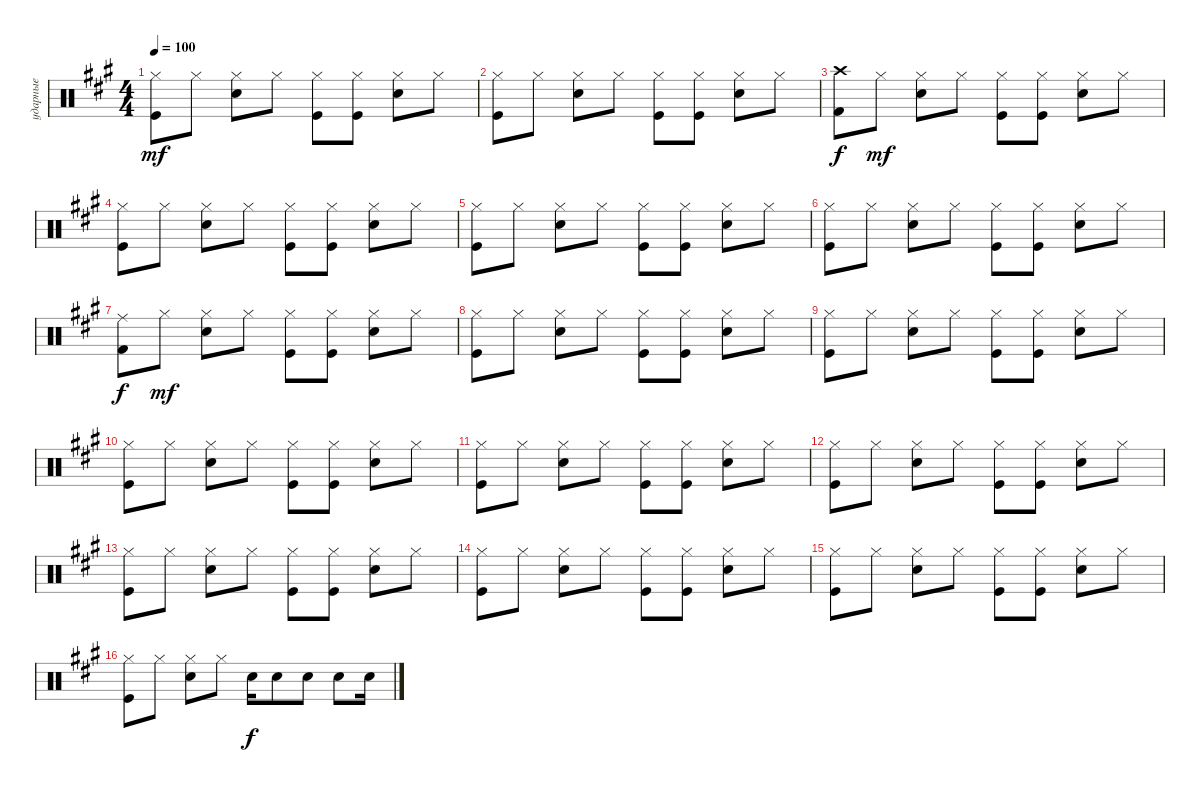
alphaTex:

\track ("ударные" "ударные") {instrument percussion}
\staff {score}
\articulation defaults
\ts (4 4)
\tempo 100
\clef neutral
\ks f#minor
("Kick (hit)" "Hi-Hat (closed)").8{dy mf} "Hi-Hat (closed)".8 ("Hi-Hat (closed)" "Electric Snare (hit)").8 "Hi-Hat (closed)".8 ("Hi-Hat (closed)" "Kick (hit)").8 ("Hi-Hat (closed)" "Kick (hit)").8 ("Hi-Hat (closed)" "Electric Snare (hit)").8 "Hi-Hat (closed)".8 |
("Kick (hit)" "Hi-Hat (closed)").8 "Hi-Hat (closed)".8 ("Hi-Hat (closed)" "Electric Snare (hit)").8 "Hi-Hat (closed)".8 ("Hi-Hat (closed)" "Kick (hit)").8 ("Hi-Hat (closed)" "Kick (hit)").8 ("Hi-Hat (closed)" "Electric Snare (hit)").8 "Hi-Hat (closed)".8 |
("Crash high (hit)" "Kick (hit) 2").8{dy f} "Hi-Hat (closed)".8{dy mf} ("Hi-Hat (closed)" "Electric Snare (hit)").8 "Hi-Hat (closed)".8 ("Hi-Hat (closed)" "Kick (hit)").8 ("Hi-Hat (closed)" "Kick (hit)").8 ("Hi-Hat (closed)" "Electric Snare (hit)").8 "Hi-Hat (closed)".8 |
("Kick (hit)" "Hi-Hat (closed)").8 "Hi-Hat (closed)".8 ("Hi-Hat (closed)" "Electric Snare (hit)").8 "Hi-Hat (closed)".8 ("Hi-Hat (closed)" "Kick (hit)").8 ("Hi-Hat (closed)" "Kick (hit)").8 ("Hi-Hat (closed)" "Electric Snare (hit)").8 "Hi-Hat (closed)".8 |
("Kick (hit)" "Hi-Hat (closed)").8 "Hi-Hat (closed)".8 ("Hi-Hat (closed)" "Electric Snare (hit)").8 "Hi-Hat (closed)".8 ("Hi-Hat (closed)" "Kick (hit)").8 ("Hi-Hat (closed)" "Kick (hit)").8 ("Hi-Hat (closed)" "Electric Snare (hit)").8 "Hi-Hat (closed)".8 |
("Kick (hit)" "Hi-Hat (closed)").8 "Hi-Hat (closed)".8 ("Hi-Hat (closed)" "Electric Snare (hit)").8 "Hi-Hat (closed)".8 ("Hi-Hat (closed)" "Kick (hit)").8 ("Hi-Hat (closed)" "Kick (hit)").8 ("Hi-Hat (closed)" "Electric Snare (hit)").8 "Hi-Hat (closed)".8 |
("Ride (middle)" "Kick (hit) 2").8{dy f} "Hi-Hat (closed)".8{dy mf} ("Hi-Hat (closed)" "Electric Snare (hit)").8 "Hi-Hat (closed)".8 ("Hi-Hat (closed)" "Kick (hit)").8 ("Hi-Hat (closed)" "Kick (hit)").8 ("Hi-Hat (closed)" "Electric Snare (hit)").8 "Hi-Hat (closed)".8 |
("Kick (hit)" "Hi-Hat (closed)").8 "Hi-Hat (closed)".8 ("Hi-Hat (closed)" "Electric Snare (hit)").8 "Hi-Hat (closed)".8 ("Hi-Hat (closed)" "Kick (hit)").8 ("Hi-Hat (closed)" "Kick (hit)").8 ("Hi-Hat (closed)" "Electric Snare (hit)").8 "Hi-Hat (closed)".8 |
("Kick (hit)" "Hi-Hat (closed)").8 "Hi-Hat (closed)".8 ("Hi-Hat (closed)" "Electric Snare (hit)").8 "Hi-Hat (closed)".8 ("Hi-Hat (closed)" "Kick (hit)").8 ("Hi-Hat (closed)" "Kick (hit)").8 ("Hi-Hat (closed)" "Electric Snare (hit)").8 "Hi-Hat (closed)".8 |
("Kick (hit)" "Hi-Hat (closed)").8 "Hi-Hat (closed)".8 ("Hi-Hat (closed)" "Electric Snare (hit)").8 "Hi-Hat (closed)".8 ("Hi-Hat (closed)" "Kick (hit)").8 ("Hi-Hat (closed)" "Kick (hit)").8 ("Hi-Hat (closed)" "Electric Snare (hit)").8 "Hi-Hat (closed)".8 |
("Kick (hit)" "Hi-Hat (closed)").8 "Hi-Hat (closed)".8 ("Hi-Hat (closed)" "Electric Snare (hit)").8 "Hi-Hat (closed)".8 ("Hi-Hat (closed)" "Kick (hit)").8 ("Hi-Hat (closed)" "Kick (hit)").8 ("Hi-Hat (closed)" "Electric Snare (hit)").8 "Hi-Hat (closed)".8 |
("Kick (hit)" "Hi-Hat (closed)").8 "Hi-Hat (closed)".8 ("Hi-Hat (closed)" "Electric Snare (hit)").8 "Hi-Hat (closed)".8 ("Hi-Hat (closed)" "Kick (hit)").8 ("Hi-Hat (closed)" "Kick (hit)").8 ("Hi-Hat (closed)" "Electric Snare (hit)").8 "Hi-Hat (closed)".8 |
("Kick (hit)" "Hi-Hat (closed)").8 "Hi-Hat (closed)".8 ("Hi-Hat (closed)" "Electric Snare (hit)").8 "Hi-Hat (closed)".8 ("Hi-Hat (closed)" "Kick (hit)").8 ("Hi-Hat (closed)" "Kick (hit)").8 ("Hi-Hat (closed)" "Electric Snare (hit)").8 "Hi-Hat (closed)".8 |
("Kick (hit)" "Hi-Hat (closed)").8 "Hi-Hat (closed)".8 ("Hi-Hat (closed)" "Electric Snare (hit)").8 "Hi-Hat (closed)".8 ("Hi-Hat (closed)" "Kick (hit)").8 ("Hi-Hat (closed)" "Kick (hit)").8 ("Hi-Hat (closed)" "Electric Snare (hit)").8 "Hi-Hat (closed)".8 |
("Kick (hit)" "Hi-Hat (closed)").8 "Hi-Hat (closed)".8 ("Hi-Hat (closed)" "Electric Snare (hit)").8 "Hi-Hat (closed)".8 ("Hi-Hat (closed)" "Kick (hit)").8 ("Hi-Hat (closed)" "Kick (hit)").8 ("Hi-Hat (closed)" "Electric Snare (hit)").8 "Hi-Hat (closed)".8 |
("Kick (hit)" "Hi-Hat (closed)").8 "Hi-Hat (closed)".8 ("Hi-Hat (closed)" "Electric Snare (hit)").8 "Hi-Hat (closed)".8 "Electric Snare (hit)".16{dy f} "Electric Snare (hit)".8 "Snare (hit) 2".8 "Snare (hit) 2".8 "Electric Snare (hit)".16
